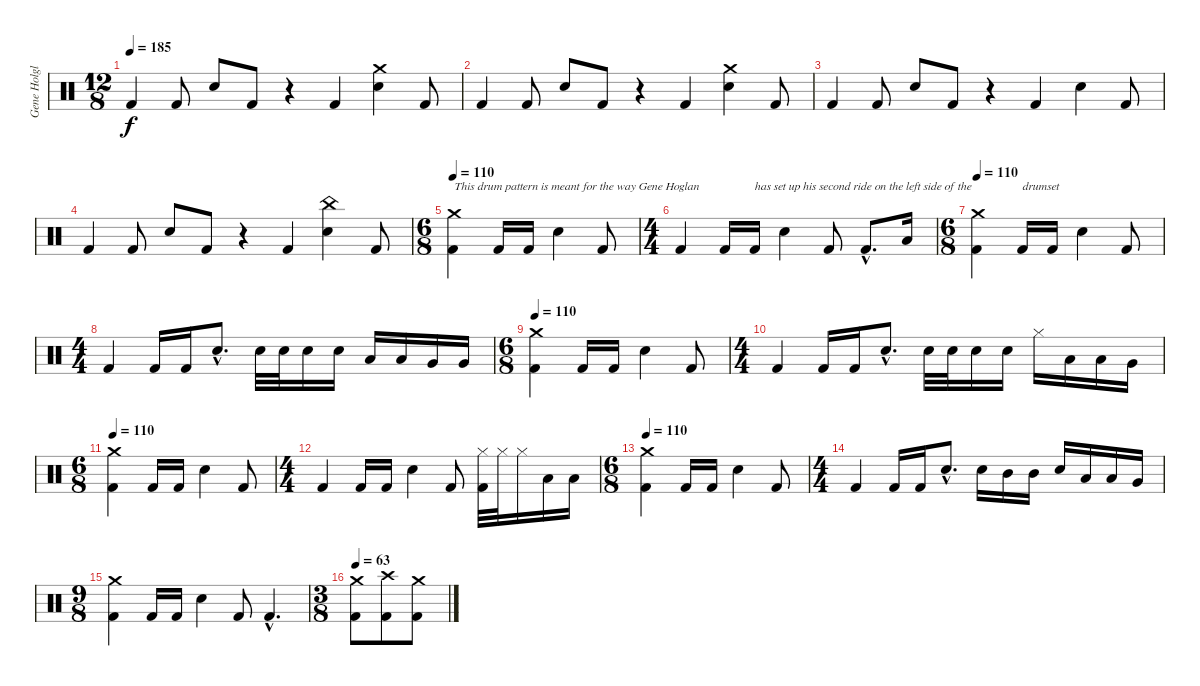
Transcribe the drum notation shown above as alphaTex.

\track ("Gene Holglan" "Gene Holgl") {instrument percussion}
\staff {score}
\articulation defaults
\ts (12 8)
\tempo 185
\clef neutral
\ks c "Kick (hit) 2".4{dy f} "Kick (hit) 2".8 "Snare (hit) 2".8 "Kick (hit) 2".8
r.4 "Kick (hit) 2".4 ("Crash medium (hit)" "Snare (hit) 2").4 "Kick (hit) 2".8 |
"Kick (hit) 2".4 "Kick (hit) 2".8 "Snare (hit) 2".8 "Kick (hit) 2".8 r.4 "Kick (hit) 2".4 ("Crash medium (hit)" "Snare (hit) 2").4 "Kick (hit) 2".8 |
"Kick (hit) 2".4 "Kick (hit) 2".8 "Snare (hit) 2".8 "Kick (hit) 2".8 r.4 "Kick (hit) 2".4 "Snare (hit) 2".4 "Kick (hit) 2".8 |
"Kick (hit) 2".4 "Kick (hit) 2".8 "Snare (hit) 2".8 "Kick (hit) 2".8 r.4 "Kick (hit) 2".4 ("China (hit)" "Snare (hit) 2").4 "Kick (hit) 2".8 |
\ts (6 8)
\tempo 110
("Crash medium (hit)" "Kick (hit) 2").4{txt "This drum pattern is meant for the way Gene Hoglan"} "Kick (hit) 2".16 "Kick (hit) 2".16 "Snare (hit) 2".4 "Kick (hit) 2".8 |
\ts (4 4)
"Kick (hit) 2".4 "Kick (hit) 2".16 "Kick (hit) 2".16{txt "has set up his second ride on the left side of the"} "Snare (hit) 2".4 "Kick (hit) 2".8 "Kick (hit) 2"{hac}.8{d} "Low Tom (hit)".16 |
\ts (6 8)
\tempo 110
("Crash medium (hit)" "Kick (hit) 2").4 "Kick (hit) 2".16{txt "drumset"} "Kick (hit) 2".16 "Snare (hit) 2".4 "Kick (hit) 2".8 |
\ts (4 4)
"Kick (hit) 2".4 "Kick (hit) 2".16 "Kick (hit) 2".16 "Snare (hit) 2"{hac}.8{d} "Snare (hit) 2".32 "Snare (hit) 2".32 "Snare (hit) 2".16 "Snare (hit) 2".16 "Low Tom (hit)".16 "Low Tom (hit)".16 "Very Low Tom (hit)".16 "Very Low Tom (hit)".16 |
\ts (6 8)
\tempo 110
("Crash medium (hit)" "Kick (hit) 2").4 "Kick (hit) 2".16 "Kick (hit) 2".16 "Snare (hit) 2".4 "Kick (hit) 2".8 |
\ts (4 4)
"Kick (hit) 2".4 "Kick (hit) 2".16 "Kick (hit) 2".16 "Snare (hit) 2"{hac}.8{d} "Snare (hit) 2".32 "Snare (hit) 2".32 "Snare (hit) 2".16 "Snare (hit) 2".16 "Hi-Hat (closed)".16 "Low Tom (hit)".16 "Low Tom (hit)".16 "Very Low Tom (hit)".16 |
\ts (6 8)
\tempo 110
("Crash medium (hit)" "Kick (hit) 2").4 "Kick (hit) 2".16 "Kick (hit) 2".16 "Snare (hit) 2".4 "Kick (hit) 2".8 |
\ts (4 4)
"Kick (hit) 2".4 "Kick (hit) 2".16 "Kick (hit) 2".16 "Snare (hit) 2".4 "Kick (hit) 2".8 ("Hi-Hat (closed)" "Kick (hit) 2").32 "Hi-Hat (closed)".32 "Hi-Hat (closed)".16 "Low Tom (hit)".16 "Low Tom (hit)".16 |
\ts (6 8)
\tempo 110
("Crash medium (hit)" "Kick (hit) 2").4 "Kick (hit) 2".16 "Kick (hit) 2".16 "Snare (hit) 2".4 "Kick (hit) 2".8 |
\ts (4 4)
"Kick (hit) 2".4 "Kick (hit) 2".16 "Kick (hit) 2".16 "Snare (hit) 2"{hac}.8{d} "Snare (hit) 2".16 "Mid Tom (hit)".16 "Mid Tom (hit)".16 "Snare (hit) 2".16 "Low Tom (hit)".16 "Low Tom (hit)".16 "Very Low Tom (hit)".16 |
\ts (9 8)
("Crash medium (hit)" "Kick (hit) 2").4 "Kick (hit) 2".16 "Kick (hit) 2".16 "Snare (hit) 2".4 "Kick (hit) 2".8 "Kick (hit) 2"{hac}.4{d} |
\ts (3 8)
\tempo 63
("Crash medium (hit)" "Kick (hit) 2").8 ("Crash high (hit)" "Kick (hit) 2").8 ("Crash medium (hit)" "Kick (hit) 2").8
